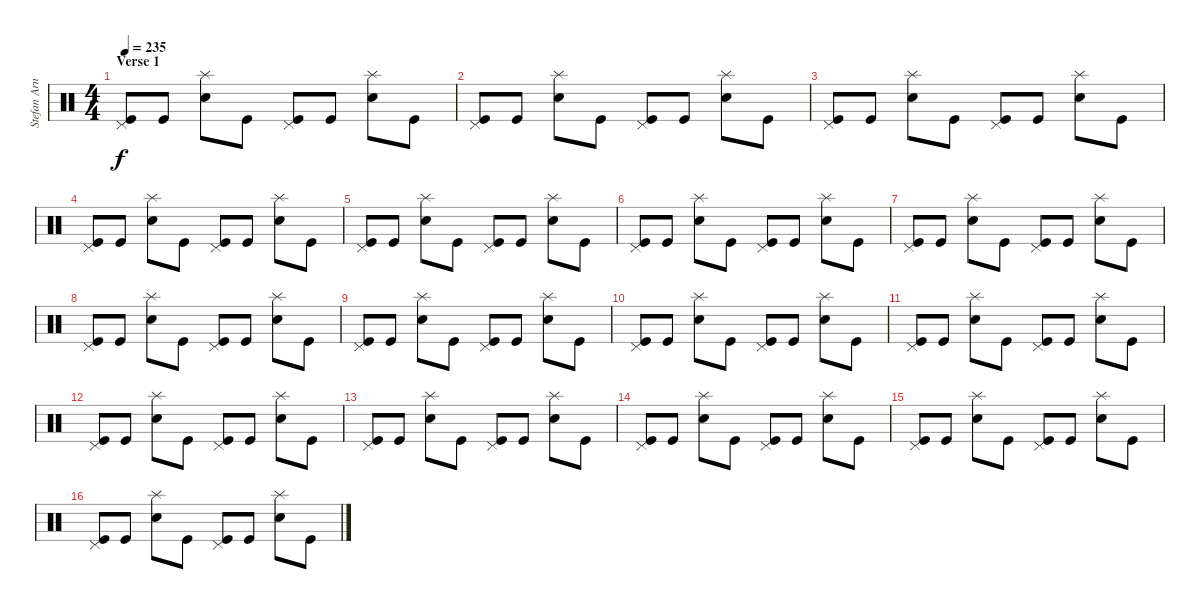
\track ("Stefan Arnold" "Stefan Arn") {instrument percussion}
\staff {score}
\articulation defaults
\ts (4 4)
\section ("" "Verse 1")
\tempo 235
\clef neutral
\ks c
("Kick (hit)" "Pedal Hi-Hat (hit)").8{dy f} "Kick (hit)".8 ("Electric Snare (hit)" "Splash (hit)").8 "Kick (hit)".8 ("Kick (hit)" "Pedal Hi-Hat (hit)").8 "Kick (hit)".8 ("Electric Snare (hit)" "Splash (hit)").8 "Kick (hit)".8 |
("Kick (hit)" "Pedal Hi-Hat (hit)").8 "Kick (hit)".8 ("Electric Snare (hit)" "Splash (hit)").8 "Kick (hit)".8 ("Kick (hit)" "Pedal Hi-Hat (hit)").8 "Kick (hit)".8 ("Electric Snare (hit)" "Splash (hit)").8 "Kick (hit)".8 |
("Kick (hit)" "Pedal Hi-Hat (hit)").8 "Kick (hit)".8 ("Electric Snare (hit)" "Splash (hit)").8 "Kick (hit)".8 ("Kick (hit)" "Pedal Hi-Hat (hit)").8 "Kick (hit)".8 ("Electric Snare (hit)" "Splash (hit)").8 "Kick (hit)".8 |
("Kick (hit)" "Pedal Hi-Hat (hit)").8 "Kick (hit)".8 ("Electric Snare (hit)" "Splash (hit)").8 "Kick (hit)".8 ("Kick (hit)" "Pedal Hi-Hat (hit)").8 "Kick (hit)".8 ("Electric Snare (hit)" "Splash (hit)").8 "Kick (hit)".8 |
("Kick (hit)" "Pedal Hi-Hat (hit)").8 "Kick (hit)".8 ("Electric Snare (hit)" "Splash (hit)").8 "Kick (hit)".8 ("Kick (hit)" "Pedal Hi-Hat (hit)").8 "Kick (hit)".8 ("Electric Snare (hit)" "Splash (hit)").8 "Kick (hit)".8 |
("Kick (hit)" "Pedal Hi-Hat (hit)").8 "Kick (hit)".8 ("Electric Snare (hit)" "Splash (hit)").8 "Kick (hit)".8 ("Kick (hit)" "Pedal Hi-Hat (hit)").8 "Kick (hit)".8 ("Electric Snare (hit)" "Splash (hit)").8 "Kick (hit)".8 |
("Kick (hit)" "Pedal Hi-Hat (hit)").8 "Kick (hit)".8 ("Electric Snare (hit)" "Splash (hit)").8 "Kick (hit)".8 ("Kick (hit)" "Pedal Hi-Hat (hit)").8 "Kick (hit)".8 ("Electric Snare (hit)" "Splash (hit)").8 "Kick (hit)".8 |
("Kick (hit)" "Pedal Hi-Hat (hit)").8 "Kick (hit)".8 ("Electric Snare (hit)" "Splash (hit)").8 "Kick (hit)".8 ("Kick (hit)" "Pedal Hi-Hat (hit)").8 "Kick (hit)".8 ("Electric Snare (hit)" "Splash (hit)").8 "Kick (hit)".8 |
("Kick (hit)" "Pedal Hi-Hat (hit)").8 "Kick (hit)".8 ("Electric Snare (hit)" "Splash (hit)").8 "Kick (hit)".8 ("Kick (hit)" "Pedal Hi-Hat (hit)").8 "Kick (hit)".8 ("Electric Snare (hit)" "Splash (hit)").8 "Kick (hit)".8 |
("Kick (hit)" "Pedal Hi-Hat (hit)").8 "Kick (hit)".8 ("Electric Snare (hit)" "Splash (hit)").8 "Kick (hit)".8 ("Kick (hit)" "Pedal Hi-Hat (hit)").8 "Kick (hit)".8 ("Electric Snare (hit)" "Splash (hit)").8 "Kick (hit)".8 |
("Kick (hit)" "Pedal Hi-Hat (hit)").8 "Kick (hit)".8 ("Electric Snare (hit)" "Splash (hit)").8 "Kick (hit)".8 ("Kick (hit)" "Pedal Hi-Hat (hit)").8 "Kick (hit)".8 ("Electric Snare (hit)" "Splash (hit)").8 "Kick (hit)".8 |
("Kick (hit)" "Pedal Hi-Hat (hit)").8 "Kick (hit)".8 ("Electric Snare (hit)" "Splash (hit)").8 "Kick (hit)".8 ("Kick (hit)" "Pedal Hi-Hat (hit)").8 "Kick (hit)".8 ("Electric Snare (hit)" "Splash (hit)").8 "Kick (hit)".8 |
("Kick (hit)" "Pedal Hi-Hat (hit)").8 "Kick (hit)".8 ("Electric Snare (hit)" "Splash (hit)").8 "Kick (hit)".8 ("Kick (hit)" "Pedal Hi-Hat (hit)").8 "Kick (hit)".8 ("Electric Snare (hit)" "Splash (hit)").8 "Kick (hit)".8 |
("Kick (hit)" "Pedal Hi-Hat (hit)").8 "Kick (hit)".8 ("Electric Snare (hit)" "Splash (hit)").8 "Kick (hit)".8 ("Kick (hit)" "Pedal Hi-Hat (hit)").8 "Kick (hit)".8 ("Electric Snare (hit)" "Splash (hit)").8 "Kick (hit)".8 |
("Kick (hit)" "Pedal Hi-Hat (hit)").8 "Kick (hit)".8 ("Electric Snare (hit)" "Splash (hit)").8 "Kick (hit)".8 ("Kick (hit)" "Pedal Hi-Hat (hit)").8 "Kick (hit)".8 ("Electric Snare (hit)" "Splash (hit)").8 "Kick (hit)".8 |
("Kick (hit)" "Pedal Hi-Hat (hit)").8 "Kick (hit)".8 ("Electric Snare (hit)" "Splash (hit)").8 "Kick (hit)".8 ("Kick (hit)" "Pedal Hi-Hat (hit)").8 "Kick (hit)".8 ("Electric Snare (hit)" "Splash (hit)").8 "Kick (hit)".8
